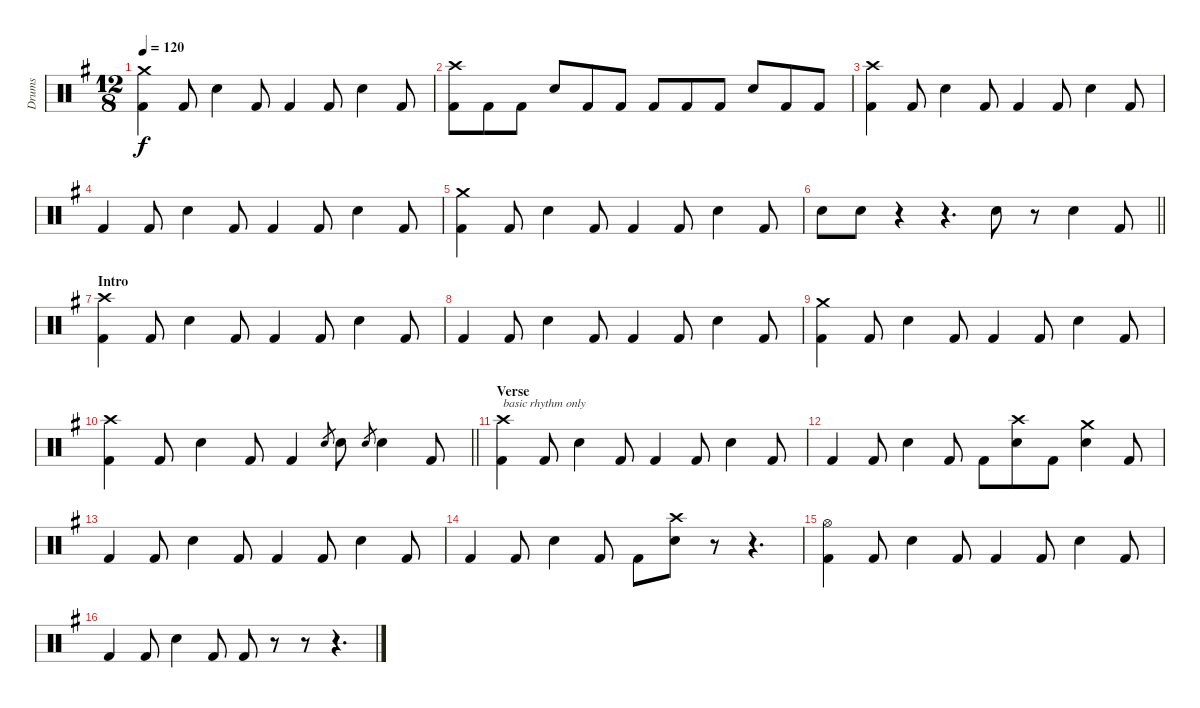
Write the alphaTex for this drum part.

\track ("Drums" "Drums") {instrument percussion}
\staff {score}
\articulation defaults
\ts (12 8)
\tempo 120
\clef neutral
\ks eminor
("Kick (hit) 2" "Crash medium (hit)").4{dy f} "Kick (hit) 2".8 "Snare (hit) 2".4 "Kick (hit) 2".8 "Kick (hit) 2".4 "Kick (hit) 2".8 "Snare (hit) 2".4 "Kick (hit) 2".8 |
("Kick (hit) 2" "Crash high (hit)").8 "Kick (hit) 2".8 "Kick (hit) 2".8 "Snare (hit) 2".8 "Kick (hit) 2".8 "Kick (hit) 2".8 "Kick (hit) 2".8 "Kick (hit) 2".8 "Kick (hit) 2".8 "Snare (hit) 2".8 "Kick (hit) 2".8 "Kick (hit) 2".8 |
("Kick (hit) 2" "Crash high (hit)").4 "Kick (hit) 2".8 "Snare (hit) 2".4 "Kick (hit) 2".8 "Kick (hit) 2".4 "Kick (hit) 2".8 "Snare (hit) 2".4 "Kick (hit) 2".8 |
"Kick (hit) 2".4 "Kick (hit) 2".8 "Snare (hit) 2".4 "Kick (hit) 2".8 "Kick (hit) 2".4 "Kick (hit) 2".8 "Snare (hit) 2".4 "Kick (hit) 2".8 |
("Kick (hit) 2" "Crash medium (hit)").4 "Kick (hit) 2".8 "Snare (hit) 2".4 "Kick (hit) 2".8 "Kick (hit) 2".4 "Kick (hit) 2".8 "Snare (hit) 2".4 "Kick (hit) 2".8 |
\barLineRight lightlight "Snare (hit) 2".8 "Snare (hit) 2".8
r.4 r.4{d} "Snare (hit) 2".8 r.8 "Snare (hit) 2".4 "Kick (hit) 2".8 |
\section ("" "Intro")
("Kick (hit) 2" "Crash high (hit)").4 "Kick (hit) 2".8 "Snare (hit) 2".4 "Kick (hit) 2".8 "Kick (hit) 2".4 "Kick (hit) 2".8 "Snare (hit) 2".4 "Kick (hit) 2".8 |
"Kick (hit) 2".4 "Kick (hit) 2".8 "Snare (hit) 2".4 "Kick (hit) 2".8 "Kick (hit) 2".4 "Kick (hit) 2".8 "Snare (hit) 2".4 "Kick (hit) 2".8 |
("Kick (hit) 2" "Crash medium (hit)").4 "Kick (hit) 2".8 "Snare (hit) 2".4 "Kick (hit) 2".8 "Kick (hit) 2".4 "Kick (hit) 2".8 "Snare (hit) 2".4 "Kick (hit) 2".8 |
\barLineRight lightlight
("Kick (hit) 2" "Crash high (hit)").4 "Kick (hit) 2".8 "Snare (hit) 2".4 "Kick (hit) 2".8 "Kick (hit) 2".4 "Snare (hit) 2".8{gr} "Snare (hit) 2".8 "Snare (hit) 2".8{gr} "Snare (hit) 2".4 "Kick (hit) 2".8 |
\section ("" "Verse")
("Kick (hit) 2" "Crash high (hit)").4{txt "basic rhythm only"} "Kick (hit) 2".8 "Snare (hit) 2".4 "Kick (hit) 2".8 "Kick (hit) 2".4 "Kick (hit) 2".8 "Snare (hit) 2".4 "Kick (hit) 2".8 |
"Kick (hit) 2".4 "Kick (hit) 2".8 "Snare (hit) 2".4 "Kick (hit) 2".8 "Kick (hit) 2".8 ("Snare (hit) 2" "Crash high (hit)").8 "Kick (hit) 2".8 ("Snare (hit) 2" "Crash medium (hit)").4 "Kick (hit) 2".8 |
"Kick (hit) 2".4 "Kick (hit) 2".8 "Snare (hit) 2".4 "Kick (hit) 2".8 "Kick (hit) 2".4 "Kick (hit) 2".8 "Snare (hit) 2".4 "Kick (hit) 2".8 |
"Kick (hit) 2".4 "Kick (hit) 2".8 "Snare (hit) 2".4 "Kick (hit) 2".8 "Kick (hit) 2".8 ("Snare (hit) 2" "Crash high (hit)").8 r.8 r.4{d} |
("Kick (hit) 2" "Hi-Hat (open)").4 "Kick (hit) 2".8 "Snare (hit) 2".4 "Kick (hit) 2".8 "Kick (hit) 2".4 "Kick (hit) 2".8 "Snare (hit) 2".4 "Kick (hit) 2".8 |
"Kick (hit) 2".4 "Kick (hit) 2".8 "Snare (hit) 2".4 "Kick (hit) 2".8 "Kick (hit) 2".8 r.8 r.8 r.4{d}
